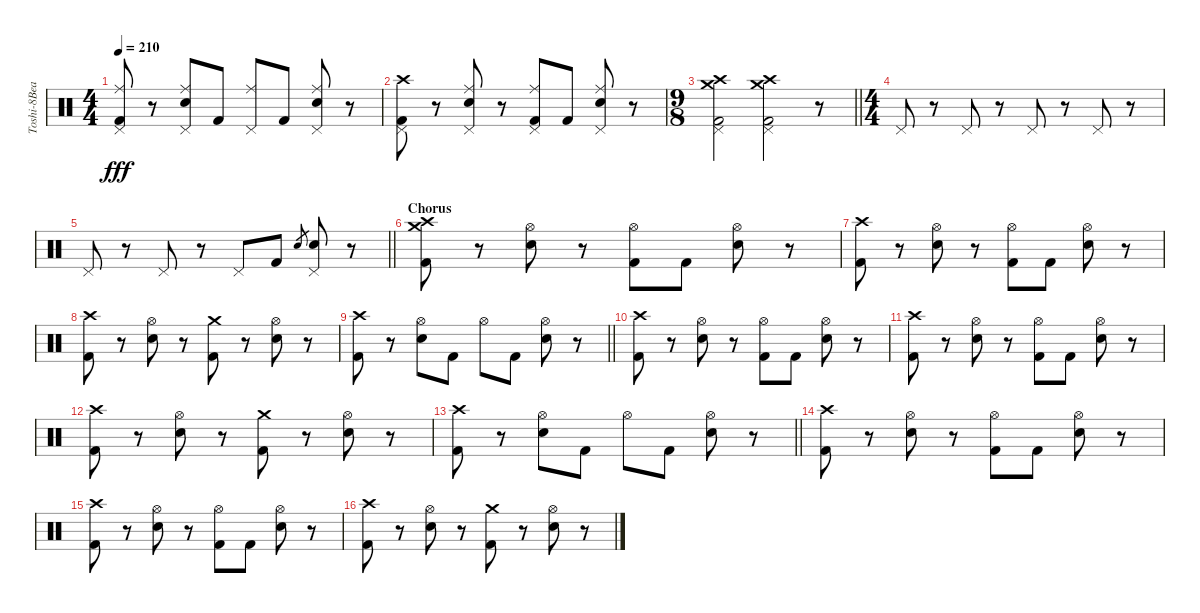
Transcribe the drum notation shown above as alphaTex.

\track ("Toshi-8Beat" "Toshi-8Bea") {instrument percussion}
\staff {score}
\articulation defaults
\ts (4 4)
\tempo 210
\clef neutral
\ks c
("Pedal Hi-Hat (hit)" "Kick (hit) 2" "Ride (middle)").8{dy fff} r.8 ("Pedal Hi-Hat (hit)" "Snare (hit) 2" "Ride (middle)").8 "Kick (hit) 2".8 ("Pedal Hi-Hat (hit)" "Ride (middle)").8 "Kick (hit) 2".8 ("Pedal Hi-Hat (hit)" "Snare (hit) 2" "Ride (middle)").8 r.8 |
("Pedal Hi-Hat (hit)" "Kick (hit) 2" "Crash high (hit)").8 r.8 ("Pedal Hi-Hat (hit)" "Snare (hit) 2" "Ride (middle)").8 r.8 ("Pedal Hi-Hat (hit)" "Kick (hit) 2" "Ride (middle)").8 "Kick (hit) 2".8 ("Pedal Hi-Hat (hit)" "Snare (hit) 2" "Ride (middle)").8 r.8 |
\ts (9 8)
\barLineRight lightlight
("Pedal Hi-Hat (hit)" "Kick (hit) 2" "Crash medium (hit)" "Crash high (hit)").2 ("Pedal Hi-Hat (hit)" "Kick (hit) 2" "Crash medium (hit)" "Crash high (hit)").2 r.8 |
\ts (4 4)
"Pedal Hi-Hat (hit)".8 r.8 "Pedal Hi-Hat (hit)".8 r.8 "Pedal Hi-Hat (hit)".8 r.8 "Pedal Hi-Hat (hit)".8 r.8 |
\barLineRight lightlight "Pedal Hi-Hat (hit)".8
r.8 "Pedal Hi-Hat (hit)".8 r.8 "Pedal Hi-Hat (hit)".8 "Kick (hit) 2".8 "Snare (hit) 2".8{gr} ("Pedal Hi-Hat (hit)" "Snare (hit) 2").8 r.8 |
\section ("" "Chorus")
("Kick (hit) 2" "Crash high (hit)" "Crash medium (hit)").8 r.8 ("Hi-Hat (open)" "Snare (hit) 2").8 r.8 ("Hi-Hat (open)" "Kick (hit) 2").8 "Kick (hit) 2".8 ("Hi-Hat (open)" "Snare (hit) 2").8 r.8 |
("Kick (hit) 2" "Crash high (hit)").8 r.8 ("Hi-Hat (open)" "Snare (hit) 2").8 r.8 ("Hi-Hat (open)" "Kick (hit) 2").8 "Kick (hit) 2".8 ("Hi-Hat (open)" "Snare (hit) 2").8 r.8 |
("Kick (hit) 2" "Crash high (hit)").8 r.8 ("Hi-Hat (open)" "Snare (hit) 2").8 r.8 ("Kick (hit) 2" "Crash medium (hit)").8 r.8 ("Hi-Hat (open)" "Snare (hit) 2").8 r.8 |
\barLineRight lightlight
("Kick (hit) 2" "Crash high (hit)").8 r.8 ("Hi-Hat (open)" "Snare (hit) 2").8 "Kick (hit) 2".8 "Hi-Hat (open)".8 "Kick (hit) 2".8 ("Hi-Hat (open)" "Snare (hit) 2").8 r.8 |
("Kick (hit) 2" "Crash high (hit)").8 r.8 ("Hi-Hat (open)" "Snare (hit) 2").8 r.8 ("Hi-Hat (open)" "Kick (hit) 2").8 "Kick (hit) 2".8 ("Hi-Hat (open)" "Snare (hit) 2").8 r.8 |
("Kick (hit) 2" "Crash high (hit)").8 r.8 ("Hi-Hat (open)" "Snare (hit) 2").8 r.8 ("Hi-Hat (open)" "Kick (hit) 2").8 "Kick (hit) 2".8 ("Hi-Hat (open)" "Snare (hit) 2").8 r.8 |
("Kick (hit) 2" "Crash high (hit)").8 r.8 ("Hi-Hat (open)" "Snare (hit) 2").8 r.8 ("Kick (hit) 2" "Crash medium (hit)").8 r.8 ("Hi-Hat (open)" "Snare (hit) 2").8 r.8 |
\barLineRight lightlight
("Kick (hit) 2" "Crash high (hit)").8 r.8 ("Hi-Hat (open)" "Snare (hit) 2").8 "Kick (hit) 2".8 "Hi-Hat (open)".8 "Kick (hit) 2".8 ("Hi-Hat (open)" "Snare (hit) 2").8 r.8 |
("Kick (hit) 2" "Crash high (hit)").8 r.8 ("Hi-Hat (open)" "Snare (hit) 2").8 r.8 ("Hi-Hat (open)" "Kick (hit) 2").8 "Kick (hit) 2".8 ("Hi-Hat (open)" "Snare (hit) 2").8 r.8 |
("Kick (hit) 2" "Crash high (hit)").8 r.8 ("Hi-Hat (open)" "Snare (hit) 2").8 r.8 ("Hi-Hat (open)" "Kick (hit) 2").8 "Kick (hit) 2".8 ("Hi-Hat (open)" "Snare (hit) 2").8 r.8 |
("Kick (hit) 2" "Crash high (hit)").8 r.8 ("Hi-Hat (open)" "Snare (hit) 2").8 r.8 ("Kick (hit) 2" "Crash medium (hit)").8 r.8 ("Hi-Hat (open)" "Snare (hit) 2").8 r.8
